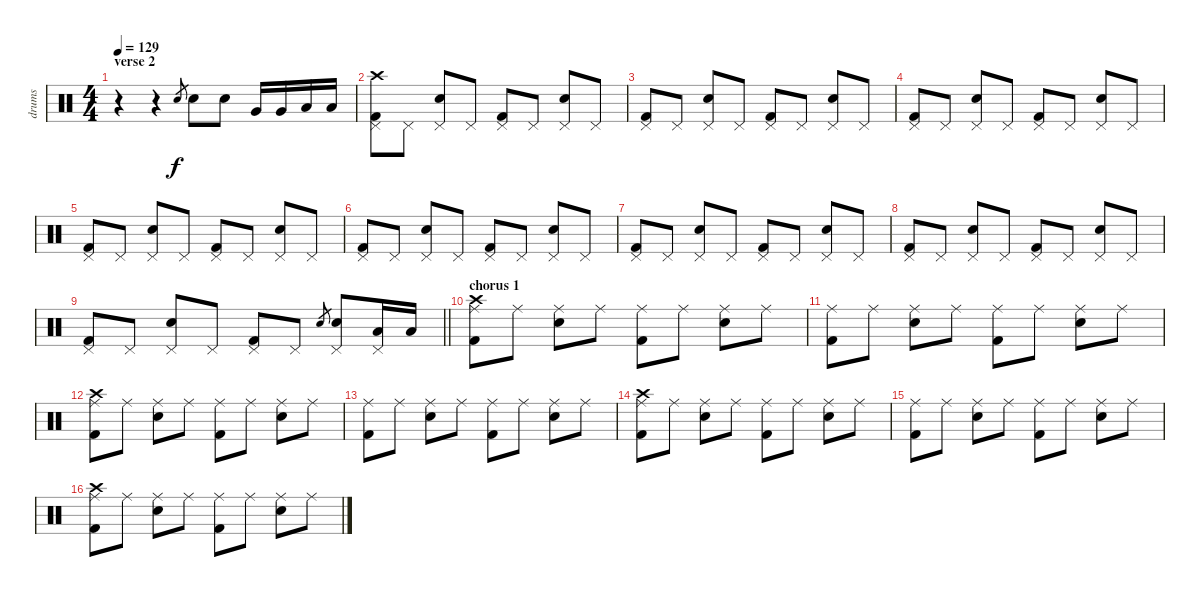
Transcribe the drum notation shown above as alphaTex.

\track ("drums" "drums") {instrument percussion}
\staff {score}
\articulation defaults
\ts (4 4)
\section ("" "verse 2")
\tempo 129
\clef neutral
\ks c
r.4{dy f} r.4 "Electric Snare (hit)".8{gr} "Electric Snare (hit)".8 "Electric Snare (hit)".8 "Very Low Tom (hit)".16 "Very Low Tom (hit)".16 "Low Tom (hit)".16 "Low Tom (hit)".16 |
("Kick (hit) 2" "Pedal Hi-Hat (hit)" "Crash high (hit)").8 "Pedal Hi-Hat (hit)".8 ("Electric Snare (hit)" "Pedal Hi-Hat (hit)").8 "Pedal Hi-Hat (hit)".8 ("Kick (hit) 2" "Pedal Hi-Hat (hit)").8 "Pedal Hi-Hat (hit)".8 ("Electric Snare (hit)" "Pedal Hi-Hat (hit)").8 "Pedal Hi-Hat (hit)".8 |
("Kick (hit) 2" "Pedal Hi-Hat (hit)").8 "Pedal Hi-Hat (hit)".8 ("Electric Snare (hit)" "Pedal Hi-Hat (hit)").8 "Pedal Hi-Hat (hit)".8 ("Kick (hit) 2" "Pedal Hi-Hat (hit)").8 "Pedal Hi-Hat (hit)".8 ("Electric Snare (hit)" "Pedal Hi-Hat (hit)").8 "Pedal Hi-Hat (hit)".8 |
("Kick (hit) 2" "Pedal Hi-Hat (hit)").8 "Pedal Hi-Hat (hit)".8 ("Electric Snare (hit)" "Pedal Hi-Hat (hit)").8 "Pedal Hi-Hat (hit)".8 ("Kick (hit) 2" "Pedal Hi-Hat (hit)").8 "Pedal Hi-Hat (hit)".8 ("Electric Snare (hit)" "Pedal Hi-Hat (hit)").8 "Pedal Hi-Hat (hit)".8 |
("Kick (hit) 2" "Pedal Hi-Hat (hit)").8 "Pedal Hi-Hat (hit)".8 ("Electric Snare (hit)" "Pedal Hi-Hat (hit)").8 "Pedal Hi-Hat (hit)".8 ("Kick (hit) 2" "Pedal Hi-Hat (hit)").8 "Pedal Hi-Hat (hit)".8 ("Electric Snare (hit)" "Pedal Hi-Hat (hit)").8 "Pedal Hi-Hat (hit)".8 |
("Kick (hit) 2" "Pedal Hi-Hat (hit)").8 "Pedal Hi-Hat (hit)".8 ("Electric Snare (hit)" "Pedal Hi-Hat (hit)").8 "Pedal Hi-Hat (hit)".8 ("Kick (hit) 2" "Pedal Hi-Hat (hit)").8 "Pedal Hi-Hat (hit)".8 ("Electric Snare (hit)" "Pedal Hi-Hat (hit)").8 "Pedal Hi-Hat (hit)".8 |
("Kick (hit) 2" "Pedal Hi-Hat (hit)").8 "Pedal Hi-Hat (hit)".8 ("Electric Snare (hit)" "Pedal Hi-Hat (hit)").8 "Pedal Hi-Hat (hit)".8 ("Kick (hit) 2" "Pedal Hi-Hat (hit)").8 "Pedal Hi-Hat (hit)".8 ("Electric Snare (hit)" "Pedal Hi-Hat (hit)").8 "Pedal Hi-Hat (hit)".8 |
("Kick (hit) 2" "Pedal Hi-Hat (hit)").8 "Pedal Hi-Hat (hit)".8 ("Electric Snare (hit)" "Pedal Hi-Hat (hit)").8 "Pedal Hi-Hat (hit)".8 ("Kick (hit) 2" "Pedal Hi-Hat (hit)").8 "Pedal Hi-Hat (hit)".8 ("Electric Snare (hit)" "Pedal Hi-Hat (hit)").8 "Pedal Hi-Hat (hit)".8 |
\barLineRight lightlight
("Kick (hit) 2" "Pedal Hi-Hat (hit)").8 "Pedal Hi-Hat (hit)".8 ("Electric Snare (hit)" "Pedal Hi-Hat (hit)").8 "Pedal Hi-Hat (hit)".8 ("Kick (hit) 2" "Pedal Hi-Hat (hit)").8 "Pedal Hi-Hat (hit)".8 "Electric Snare (hit)".8{gr} ("Electric Snare (hit)" "Pedal Hi-Hat (hit)").8 ("Low Tom (hit)" "Pedal Hi-Hat (hit)").16 "Low Tom (hit)".16 |
\section ("" "chorus 1")
("Kick (hit) 2" "Ride (middle)" "Crash high (hit)").8 "Ride (middle)".8 ("Electric Snare (hit)" "Ride (middle)").8 "Ride (middle)".8 ("Kick (hit) 2" "Ride (middle)").8 "Ride (middle)".8 ("Electric Snare (hit)" "Ride (middle)").8 "Ride (middle)".8 |
("Kick (hit) 2" "Ride (middle)").8 "Ride (middle)".8 ("Electric Snare (hit)" "Ride (middle)").8 "Ride (middle)".8 ("Kick (hit) 2" "Ride (middle)").8 "Ride (middle)".8 ("Electric Snare (hit)" "Ride (middle)").8 "Ride (middle)".8 |
("Kick (hit) 2" "Ride (middle)" "Crash high (hit)").8 "Ride (middle)".8 ("Electric Snare (hit)" "Ride (middle)").8 "Ride (middle)".8 ("Kick (hit) 2" "Ride (middle)").8 "Ride (middle)".8 ("Electric Snare (hit)" "Ride (middle)").8 "Ride (middle)".8 |
("Kick (hit) 2" "Ride (middle)").8 "Ride (middle)".8 ("Electric Snare (hit)" "Ride (middle)").8 "Ride (middle)".8 ("Kick (hit) 2" "Ride (middle)").8 "Ride (middle)".8 ("Electric Snare (hit)" "Ride (middle)").8 "Ride (middle)".8 |
("Kick (hit) 2" "Ride (middle)" "Crash high (hit)").8 "Ride (middle)".8 ("Electric Snare (hit)" "Ride (middle)").8 "Ride (middle)".8 ("Kick (hit) 2" "Ride (middle)").8 "Ride (middle)".8 ("Electric Snare (hit)" "Ride (middle)").8 "Ride (middle)".8 |
("Kick (hit) 2" "Ride (middle)").8 "Ride (middle)".8 ("Electric Snare (hit)" "Ride (middle)").8 "Ride (middle)".8 ("Kick (hit) 2" "Ride (middle)").8 "Ride (middle)".8 ("Electric Snare (hit)" "Ride (middle)").8 "Ride (middle)".8 |
("Kick (hit) 2" "Ride (middle)" "Crash high (hit)").8 "Ride (middle)".8 ("Electric Snare (hit)" "Ride (middle)").8 "Ride (middle)".8 ("Kick (hit) 2" "Ride (middle)").8 "Ride (middle)".8 ("Electric Snare (hit)" "Ride (middle)").8 "Ride (middle)".8
